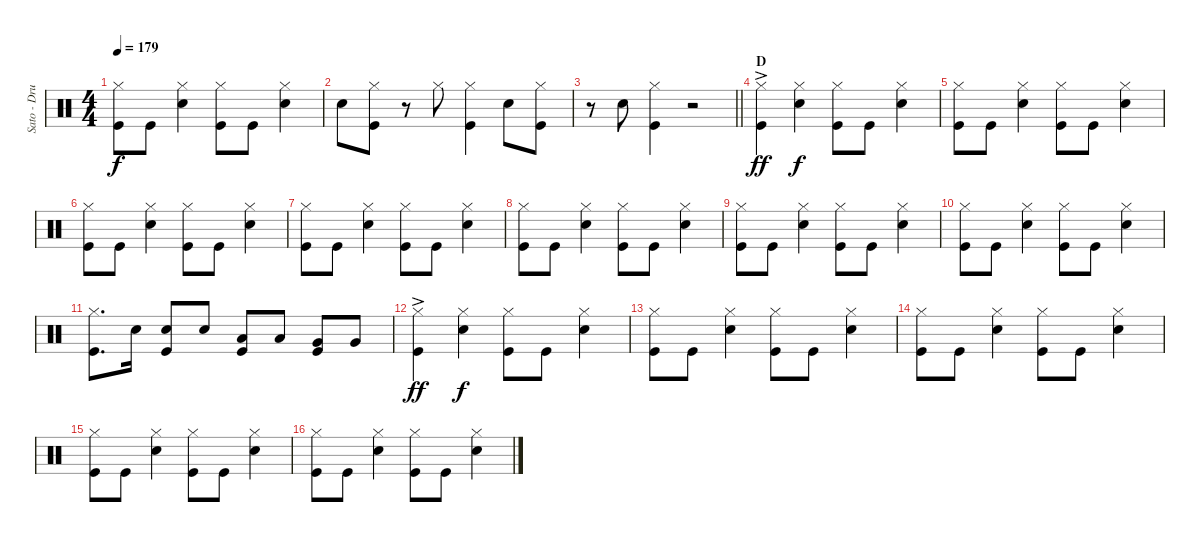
\track ("Sato - Drums" "Sato - Dru") {instrument percussion}
\staff {score}
\articulation defaults
\ts (4 4)
\tempo 179
\clef neutral
\ks c
("Hi-Hat (closed)" "Kick (hit)").8{dy f} "Kick (hit)".8 ("Hi-Hat (closed)" "Electric Snare (hit)").4 ("Hi-Hat (closed)" "Kick (hit)").8 "Kick (hit)".8 ("Hi-Hat (closed)" "Electric Snare (hit)").4 |
"Electric Snare (hit)".8 ("Hi-Hat (closed)" "Kick (hit)").8 r.8 "Hi-Hat (closed)".8 ("Hi-Hat (closed)" "Kick (hit)").4 "Electric Snare (hit)".8 ("Hi-Hat (closed)" "Kick (hit)").8 |
\barLineRight lightlight
r.8 "Electric Snare (hit)".8 ("Hi-Hat (closed)" "Kick (hit)").4 r.2 |
\section ("" "D")
("Hi-Hat (closed)"{ac} "Kick (hit)"{ac}).4{dy ff} ("Hi-Hat (closed)" "Electric Snare (hit)").4{dy f} ("Hi-Hat (closed)" "Kick (hit)").8 "Kick (hit)".8 ("Hi-Hat (closed)" "Electric Snare (hit)").4 |
("Hi-Hat (closed)" "Kick (hit)").8 "Kick (hit)".8 ("Hi-Hat (closed)" "Electric Snare (hit)").4 ("Hi-Hat (closed)" "Kick (hit)").8 "Kick (hit)".8 ("Hi-Hat (closed)" "Electric Snare (hit)").4 |
("Hi-Hat (closed)" "Kick (hit)").8 "Kick (hit)".8 ("Hi-Hat (closed)" "Electric Snare (hit)").4 ("Hi-Hat (closed)" "Kick (hit)").8 "Kick (hit)".8 ("Hi-Hat (closed)" "Electric Snare (hit)").4 |
("Hi-Hat (closed)" "Kick (hit)").8 "Kick (hit)".8 ("Hi-Hat (closed)" "Electric Snare (hit)").4 ("Hi-Hat (closed)" "Kick (hit)").8 "Kick (hit)".8 ("Hi-Hat (closed)" "Electric Snare (hit)").4 |
("Hi-Hat (closed)" "Kick (hit)").8 "Kick (hit)".8 ("Hi-Hat (closed)" "Electric Snare (hit)").4 ("Hi-Hat (closed)" "Kick (hit)").8 "Kick (hit)".8 ("Hi-Hat (closed)" "Electric Snare (hit)").4 |
("Hi-Hat (closed)" "Kick (hit)").8 "Kick (hit)".8 ("Hi-Hat (closed)" "Electric Snare (hit)").4 ("Hi-Hat (closed)" "Kick (hit)").8 "Kick (hit)".8 ("Hi-Hat (closed)" "Electric Snare (hit)").4 |
("Hi-Hat (closed)" "Kick (hit)").8 "Kick (hit)".8 ("Hi-Hat (closed)" "Electric Snare (hit)").4 ("Hi-Hat (closed)" "Kick (hit)").8 "Kick (hit)".8 ("Hi-Hat (closed)" "Electric Snare (hit)").4 |
("Hi-Hat (closed)" "Kick (hit)").8{d} "Electric Snare (hit)".16 ("Electric Snare (hit)" "Kick (hit)").8 "Electric Snare (hit)".8 ("Low Tom (hit)" "Kick (hit)").8 "Low Tom (hit)".8 ("Very Low Tom (hit)" "Kick (hit)").8 "Very Low Tom (hit)".8 |
("Hi-Hat (closed)"{ac} "Kick (hit)"{ac}).4{dy ff} ("Hi-Hat (closed)" "Electric Snare (hit)").4{dy f} ("Hi-Hat (closed)" "Kick (hit)").8 "Kick (hit)".8 ("Hi-Hat (closed)" "Electric Snare (hit)").4 |
("Hi-Hat (closed)" "Kick (hit)").8 "Kick (hit)".8 ("Hi-Hat (closed)" "Electric Snare (hit)").4 ("Hi-Hat (closed)" "Kick (hit)").8 "Kick (hit)".8 ("Hi-Hat (closed)" "Electric Snare (hit)").4 |
("Hi-Hat (closed)" "Kick (hit)").8 "Kick (hit)".8 ("Hi-Hat (closed)" "Electric Snare (hit)").4 ("Hi-Hat (closed)" "Kick (hit)").8 "Kick (hit)".8 ("Hi-Hat (closed)" "Electric Snare (hit)").4 |
("Hi-Hat (closed)" "Kick (hit)").8 "Kick (hit)".8 ("Hi-Hat (closed)" "Electric Snare (hit)").4 ("Hi-Hat (closed)" "Kick (hit)").8 "Kick (hit)".8 ("Hi-Hat (closed)" "Electric Snare (hit)").4 |
("Hi-Hat (closed)" "Kick (hit)").8 "Kick (hit)".8 ("Hi-Hat (closed)" "Electric Snare (hit)").4 ("Hi-Hat (closed)" "Kick (hit)").8 "Kick (hit)".8 ("Hi-Hat (closed)" "Electric Snare (hit)").4
